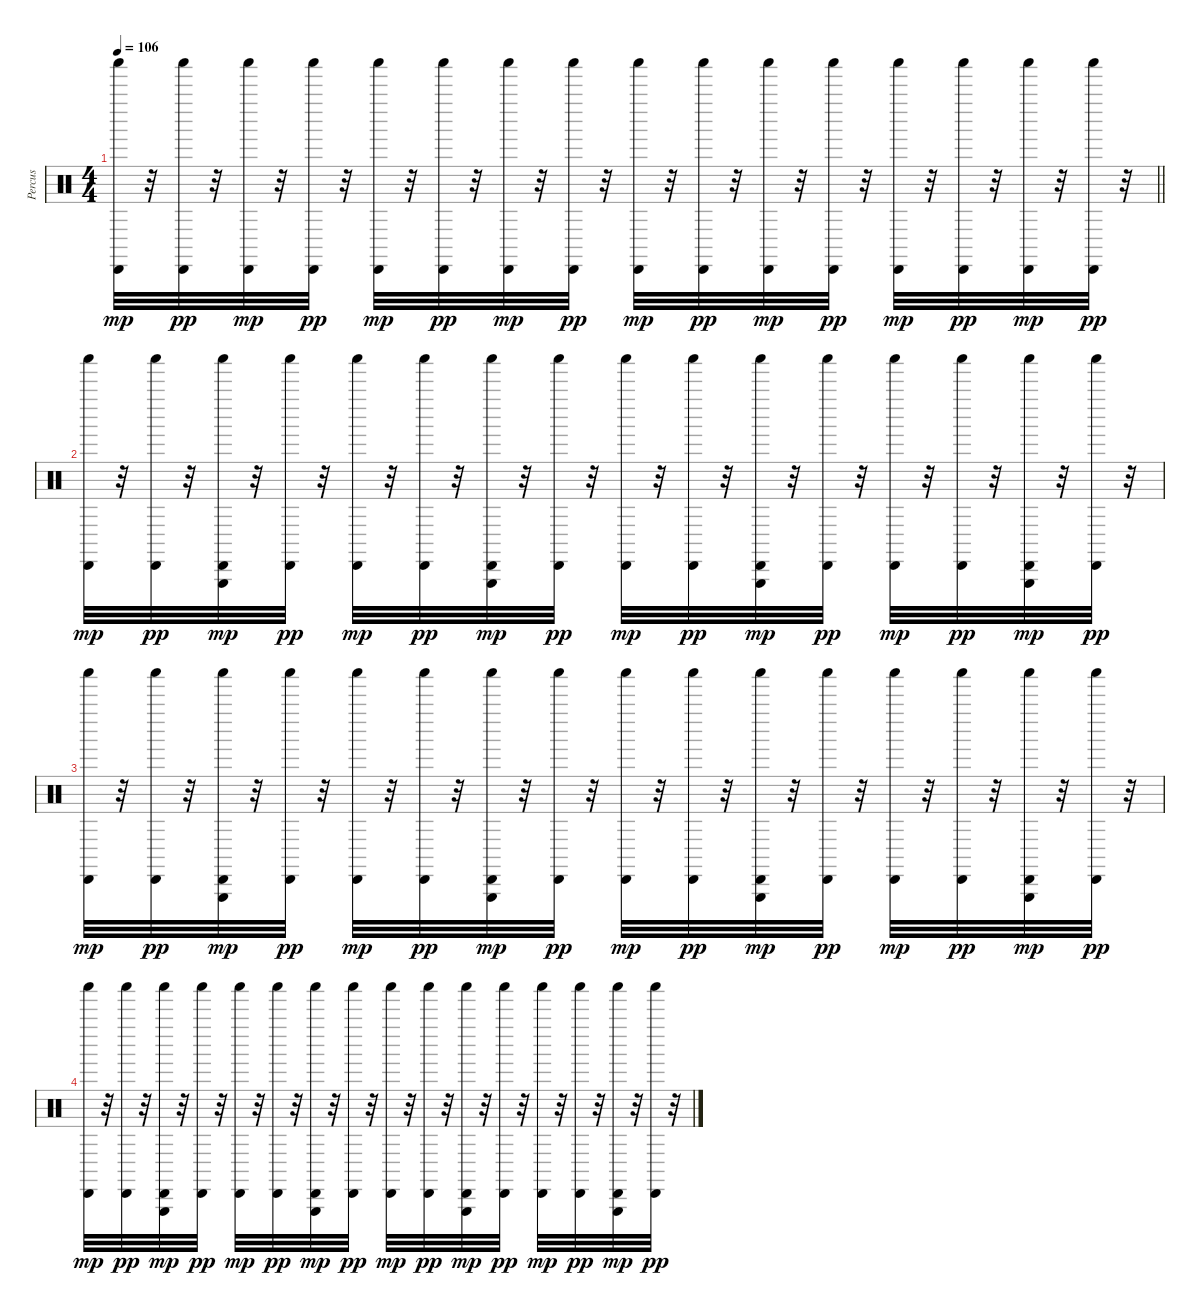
\track ("Percus" "Percus") {instrument percussion}
\staff {score}
\articulation defaults
\ts (4 4)
\tempo 106
\clef neutral
\barLineRight lightlight
\ks c
("Shaker (hit)" "Cabasa (hit)").32{dy mp} r.32 ("Shaker (hit)" "Cabasa (hit)").32{dy pp} r.32 ("Shaker (hit)" "Cabasa (hit)").32{dy mp} r.32 ("Shaker (hit)" "Cabasa (hit)").32{dy pp} r.32 ("Shaker (hit)" "Cabasa (hit)").32{dy mp} r.32 ("Shaker (hit)" "Cabasa (hit)").32{dy pp} r.32 ("Shaker (hit)" "Cabasa (hit)").32{dy mp} r.32 ("Shaker (hit)" "Cabasa (hit)").32{dy pp} r.32 ("Shaker (hit)" "Cabasa (hit)").32{dy mp} r.32 ("Shaker (hit)" "Cabasa (hit)").32{dy pp} r.32 ("Shaker (hit)" "Cabasa (hit)").32{dy mp} r.32 ("Shaker (hit)" "Cabasa (hit)").32{dy pp} r.32 ("Shaker (hit)" "Cabasa (hit)").32{dy mp} r.32 ("Shaker (hit)" "Cabasa (hit)").32{dy pp} r.32 ("Shaker (hit)" "Cabasa (hit)").32{dy mp} r.32 ("Shaker (hit)" "Cabasa (hit)").32{dy pp} r.32 |
("Shaker (hit)" "Cabasa (hit)").32{dy mp} r.32 ("Shaker (hit)" "Cabasa (hit)").32{dy pp} r.32 ("Shaker (hit)" "Triangle (hit)" "Cabasa (hit)").32{dy mp} r.32 ("Shaker (hit)" "Cabasa (hit)").32{dy pp} r.32 ("Shaker (hit)" "Cabasa (hit)").32{dy mp} r.32 ("Shaker (hit)" "Cabasa (hit)").32{dy pp} r.32 ("Shaker (hit)" "Triangle (hit)" "Cabasa (hit)").32{dy mp} r.32 ("Shaker (hit)" "Cabasa (hit)").32{dy pp} r.32 ("Shaker (hit)" "Cabasa (hit)").32{dy mp} r.32 ("Shaker (hit)" "Cabasa (hit)").32{dy pp} r.32 ("Shaker (hit)" "Triangle (hit)" "Cabasa (hit)").32{dy mp} r.32 ("Shaker (hit)" "Cabasa (hit)").32{dy pp} r.32 ("Shaker (hit)" "Cabasa (hit)").32{dy mp} r.32 ("Shaker (hit)" "Cabasa (hit)").32{dy pp} r.32 ("Shaker (hit)" "Triangle (hit)" "Cabasa (hit)").32{dy mp} r.32 ("Shaker (hit)" "Cabasa (hit)").32{dy pp} r.32 |
("Shaker (hit)" "Cabasa (hit)").32{dy mp} r.32 ("Shaker (hit)" "Cabasa (hit)").32{dy pp} r.32 ("Shaker (hit)" "Triangle (hit)" "Cabasa (hit)").32{dy mp} r.32 ("Shaker (hit)" "Cabasa (hit)").32{dy pp} r.32 ("Shaker (hit)" "Cabasa (hit)").32{dy mp} r.32 ("Shaker (hit)" "Cabasa (hit)").32{dy pp} r.32 ("Shaker (hit)" "Triangle (hit)" "Cabasa (hit)").32{dy mp} r.32 ("Shaker (hit)" "Cabasa (hit)").32{dy pp} r.32 ("Shaker (hit)" "Cabasa (hit)").32{dy mp} r.32 ("Shaker (hit)" "Cabasa (hit)").32{dy pp} r.32 ("Shaker (hit)" "Triangle (hit)" "Cabasa (hit)").32{dy mp} r.32 ("Shaker (hit)" "Cabasa (hit)").32{dy pp} r.32 ("Shaker (hit)" "Cabasa (hit)").32{dy mp} r.32 ("Shaker (hit)" "Cabasa (hit)").32{dy pp} r.32 ("Shaker (hit)" "Triangle (hit)" "Cabasa (hit)").32{dy mp} r.32 ("Shaker (hit)" "Cabasa (hit)").32{dy pp} r.32 |
("Shaker (hit)" "Cabasa (hit)").32{dy mp} r.32 ("Shaker (hit)" "Cabasa (hit)").32{dy pp} r.32 ("Shaker (hit)" "Triangle (hit)" "Cabasa (hit)").32{dy mp} r.32 ("Shaker (hit)" "Cabasa (hit)").32{dy pp} r.32 ("Shaker (hit)" "Cabasa (hit)").32{dy mp} r.32 ("Shaker (hit)" "Cabasa (hit)").32{dy pp} r.32 ("Shaker (hit)" "Triangle (hit)" "Cabasa (hit)").32{dy mp} r.32 ("Shaker (hit)" "Cabasa (hit)").32{dy pp} r.32 ("Shaker (hit)" "Cabasa (hit)").32{dy mp} r.32 ("Shaker (hit)" "Cabasa (hit)").32{dy pp} r.32 ("Shaker (hit)" "Triangle (hit)" "Cabasa (hit)").32{dy mp} r.32 ("Shaker (hit)" "Cabasa (hit)").32{dy pp} r.32 ("Shaker (hit)" "Cabasa (hit)").32{dy mp} r.32 ("Shaker (hit)" "Cabasa (hit)").32{dy pp} r.32 ("Shaker (hit)" "Triangle (hit)" "Cabasa (hit)").32{dy mp} r.32 ("Shaker (hit)" "Cabasa (hit)").32{dy pp} r.32
